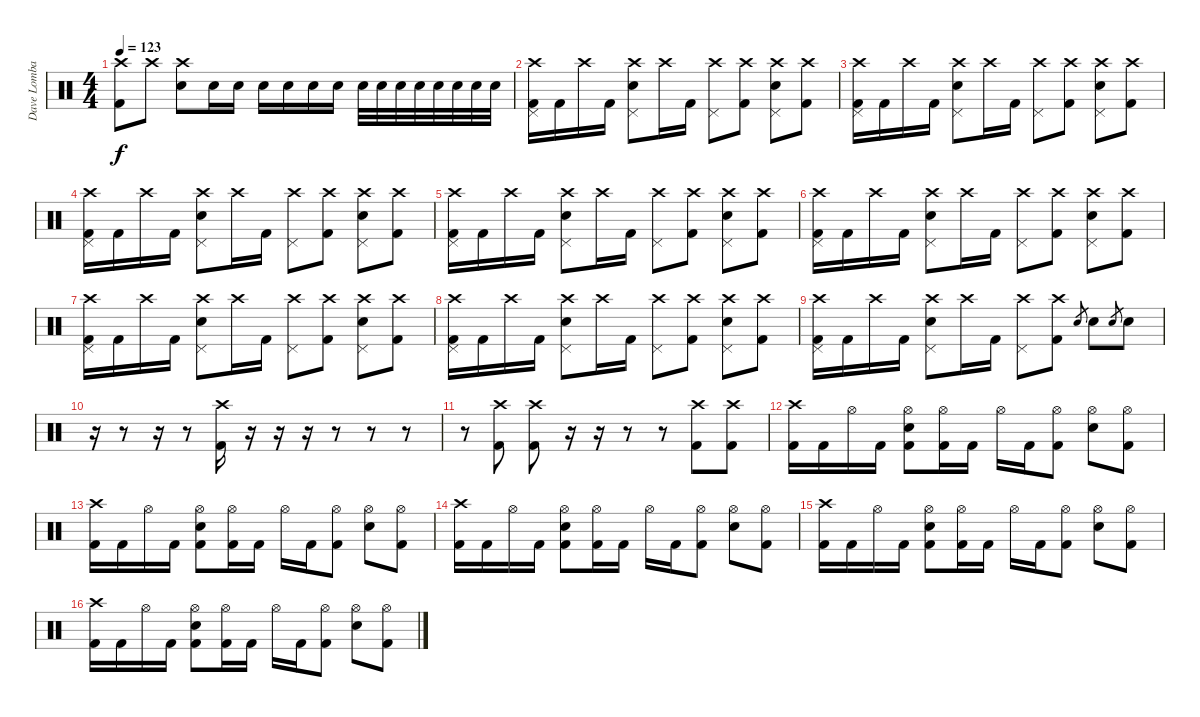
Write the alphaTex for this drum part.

\track ("Dave Lombardo" "Dave Lomba") {instrument percussion}
\staff {score}
\articulation defaults
\ts (4 4)
\tempo 123
\clef neutral
\ks c
("Crash high (hit)" "Kick (hit) 2").8{dy f} "Crash high (hit)".8 ("Crash high (hit)" "Electric Snare (hit)").8 "Electric Snare (hit)".16 "Electric Snare (hit)".16 "Electric Snare (hit)".16 "Electric Snare (hit)".16 "Electric Snare (hit)".16 "Electric Snare (hit)".16 "Electric Snare (hit)".32 "Electric Snare (hit)".32 "Electric Snare (hit)".32 "Electric Snare (hit)".32 "Electric Snare (hit)".32 "Electric Snare (hit)".32 "Electric Snare (hit)".32 "Electric Snare (hit)".32 |
("Crash high (hit)" "Kick (hit) 2" "Pedal Hi-Hat (hit)").16 "Kick (hit) 2".16 "Crash high (hit)".16 "Kick (hit) 2".16 ("Crash high (hit)" "Electric Snare (hit)" "Pedal Hi-Hat (hit)").8 "Crash high (hit)".16 "Kick (hit) 2".16 ("Crash high (hit)" "Pedal Hi-Hat (hit)").8 ("Crash high (hit)" "Kick (hit) 2").8 ("Crash high (hit)" "Electric Snare (hit)" "Pedal Hi-Hat (hit)").8 ("Crash high (hit)" "Kick (hit) 2").8 |
("Crash high (hit)" "Kick (hit) 2" "Pedal Hi-Hat (hit)").16 "Kick (hit) 2".16 "Crash high (hit)".16 "Kick (hit) 2".16 ("Crash high (hit)" "Electric Snare (hit)" "Pedal Hi-Hat (hit)").8 "Crash high (hit)".16 "Kick (hit) 2".16 ("Crash high (hit)" "Pedal Hi-Hat (hit)").8 ("Crash high (hit)" "Kick (hit) 2").8 ("Crash high (hit)" "Electric Snare (hit)" "Pedal Hi-Hat (hit)").8 ("Crash high (hit)" "Kick (hit) 2").8 |
("Crash high (hit)" "Kick (hit) 2" "Pedal Hi-Hat (hit)").16 "Kick (hit) 2".16 "Crash high (hit)".16 "Kick (hit) 2".16 ("Crash high (hit)" "Electric Snare (hit)" "Pedal Hi-Hat (hit)").8 "Crash high (hit)".16 "Kick (hit) 2".16 ("Crash high (hit)" "Pedal Hi-Hat (hit)").8 ("Crash high (hit)" "Kick (hit) 2").8 ("Crash high (hit)" "Electric Snare (hit)" "Pedal Hi-Hat (hit)").8 ("Crash high (hit)" "Kick (hit) 2").8 |
("Crash high (hit)" "Kick (hit) 2" "Pedal Hi-Hat (hit)").16 "Kick (hit) 2".16 "Crash high (hit)".16 "Kick (hit) 2".16 ("Crash high (hit)" "Electric Snare (hit)" "Pedal Hi-Hat (hit)").8 "Crash high (hit)".16 "Kick (hit) 2".16 ("Crash high (hit)" "Pedal Hi-Hat (hit)").8 ("Crash high (hit)" "Kick (hit) 2").8 ("Crash high (hit)" "Electric Snare (hit)" "Pedal Hi-Hat (hit)").8 ("Crash high (hit)" "Kick (hit) 2").8 |
("Crash high (hit)" "Kick (hit) 2" "Pedal Hi-Hat (hit)").16 "Kick (hit) 2".16 "Crash high (hit)".16 "Kick (hit) 2".16 ("Crash high (hit)" "Electric Snare (hit)" "Pedal Hi-Hat (hit)").8 "Crash high (hit)".16 "Kick (hit) 2".16 ("Crash high (hit)" "Pedal Hi-Hat (hit)").8 ("Crash high (hit)" "Kick (hit) 2").8 ("Crash high (hit)" "Electric Snare (hit)" "Pedal Hi-Hat (hit)").8 ("Crash high (hit)" "Kick (hit) 2").8 |
("Crash high (hit)" "Kick (hit) 2" "Pedal Hi-Hat (hit)").16 "Kick (hit) 2".16 "Crash high (hit)".16 "Kick (hit) 2".16 ("Crash high (hit)" "Electric Snare (hit)" "Pedal Hi-Hat (hit)").8 "Crash high (hit)".16 "Kick (hit) 2".16 ("Crash high (hit)" "Pedal Hi-Hat (hit)").8 ("Crash high (hit)" "Kick (hit) 2").8 ("Crash high (hit)" "Electric Snare (hit)" "Pedal Hi-Hat (hit)").8 ("Crash high (hit)" "Kick (hit) 2").8 |
("Crash high (hit)" "Kick (hit) 2" "Pedal Hi-Hat (hit)").16 "Kick (hit) 2".16 "Crash high (hit)".16 "Kick (hit) 2".16 ("Crash high (hit)" "Electric Snare (hit)" "Pedal Hi-Hat (hit)").8 "Crash high (hit)".16 "Kick (hit) 2".16 ("Crash high (hit)" "Pedal Hi-Hat (hit)").8 ("Crash high (hit)" "Kick (hit) 2").8 ("Crash high (hit)" "Electric Snare (hit)" "Pedal Hi-Hat (hit)").8 ("Crash high (hit)" "Kick (hit) 2").8 |
("Crash high (hit)" "Kick (hit) 2" "Pedal Hi-Hat (hit)").16 "Kick (hit) 2".16 "Crash high (hit)".16 "Kick (hit) 2".16 ("Crash high (hit)" "Electric Snare (hit)" "Pedal Hi-Hat (hit)").8 "Crash high (hit)".16 "Kick (hit) 2".16 ("Crash high (hit)" "Pedal Hi-Hat (hit)").8 ("Crash high (hit)" "Kick (hit) 2").8 "Electric Snare (hit)".8{gr} "Electric Snare (hit)".8 "Electric Snare (hit)".8{gr} "Electric Snare (hit)".8 |
r.16 r.8 r.16 r.8 ("Crash high (hit)" "Kick (hit) 2").16 r.16 r.16 r.16 r.8 r.8 r.8 |
r.8 ("Crash high (hit)" "Kick (hit) 2").8 ("Crash high (hit)" "Kick (hit) 2").8 r.16 r.16 r.8 r.8 ("Crash high (hit)" "Kick (hit) 2").8 ("Kick (hit) 2" "Crash high (hit)").8 |
("Crash high (hit)" "Kick (hit) 2").16 "Kick (hit) 2".16 "Hi-Hat (open)".16 "Kick (hit) 2".16 ("Hi-Hat (open)" "Electric Snare (hit)" "Kick (hit) 2").8 ("Hi-Hat (open)" "Kick (hit) 2").16 "Kick (hit) 2".16 "Hi-Hat (open)".16 "Kick (hit) 2".16 ("Hi-Hat (open)" "Kick (hit) 2").8 ("Hi-Hat (open)" "Electric Snare (hit)").8 ("Hi-Hat (open)" "Kick (hit) 2").8 |
("Crash high (hit)" "Kick (hit) 2").16 "Kick (hit) 2".16 "Hi-Hat (open)".16 "Kick (hit) 2".16 ("Hi-Hat (open)" "Electric Snare (hit)" "Kick (hit) 2").8 ("Hi-Hat (open)" "Kick (hit) 2").16 "Kick (hit) 2".16 "Hi-Hat (open)".16 "Kick (hit) 2".16 ("Hi-Hat (open)" "Kick (hit) 2").8 ("Hi-Hat (open)" "Electric Snare (hit)").8 ("Hi-Hat (open)" "Kick (hit) 2").8 |
("Crash high (hit)" "Kick (hit) 2").16 "Kick (hit) 2".16 "Hi-Hat (open)".16 "Kick (hit) 2".16 ("Hi-Hat (open)" "Electric Snare (hit)" "Kick (hit) 2").8 ("Hi-Hat (open)" "Kick (hit) 2").16 "Kick (hit) 2".16 "Hi-Hat (open)".16 "Kick (hit) 2".16 ("Hi-Hat (open)" "Kick (hit) 2").8 ("Hi-Hat (open)" "Electric Snare (hit)").8 ("Hi-Hat (open)" "Kick (hit) 2").8 |
("Crash high (hit)" "Kick (hit) 2").16 "Kick (hit) 2".16 "Hi-Hat (open)".16 "Kick (hit) 2".16 ("Hi-Hat (open)" "Electric Snare (hit)" "Kick (hit) 2").8 ("Hi-Hat (open)" "Kick (hit) 2").16 "Kick (hit) 2".16 "Hi-Hat (open)".16 "Kick (hit) 2".16 ("Hi-Hat (open)" "Kick (hit) 2").8 ("Hi-Hat (open)" "Electric Snare (hit)").8 ("Hi-Hat (open)" "Kick (hit) 2").8 |
("Crash high (hit)" "Kick (hit) 2").16 "Kick (hit) 2".16 "Hi-Hat (open)".16 "Kick (hit) 2".16 ("Hi-Hat (open)" "Electric Snare (hit)" "Kick (hit) 2").8 ("Hi-Hat (open)" "Kick (hit) 2").16 "Kick (hit) 2".16 "Hi-Hat (open)".16 "Kick (hit) 2".16 ("Hi-Hat (open)" "Kick (hit) 2").8 ("Hi-Hat (open)" "Electric Snare (hit)").8 ("Hi-Hat (open)" "Kick (hit) 2").8
